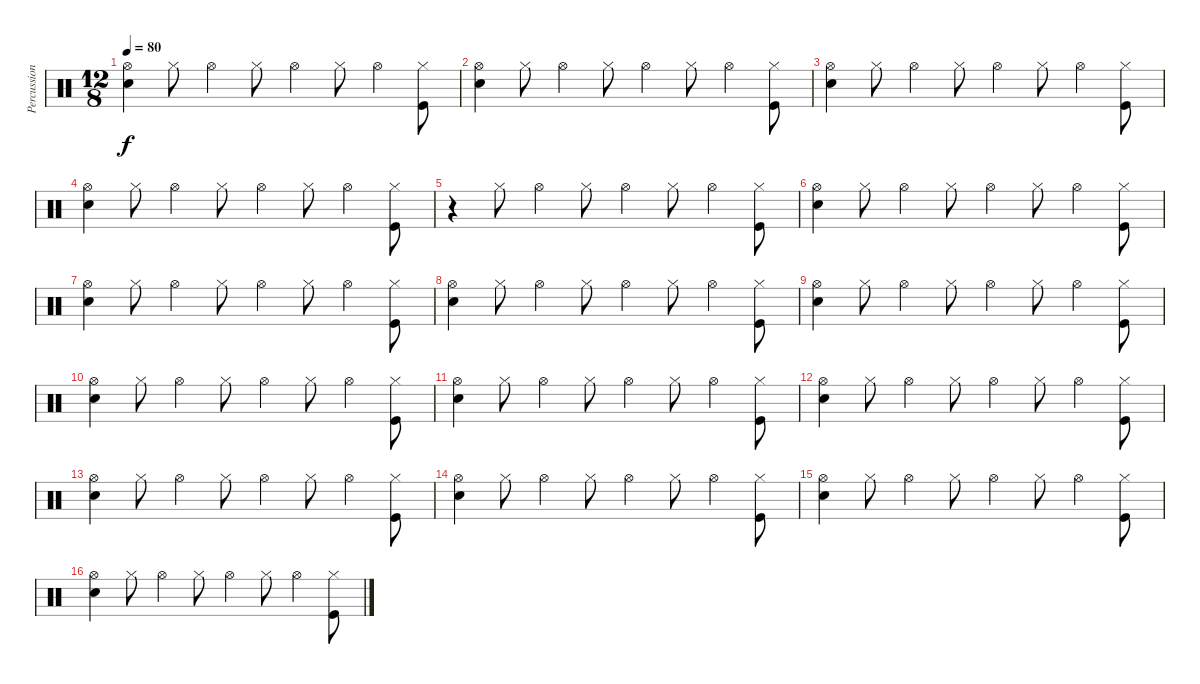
\track ("Percussion" "Percussion") {instrument percussion}
\staff {score}
\articulation defaults
\ts (12 8)
\tempo 80
\clef neutral
\ks c
("Hi-Hat (open)" "Snare (hit) 2").4{dy f} "Hi-Hat (closed)".8 "Hi-Hat (open)".4 "Hi-Hat (closed)".8 "Hi-Hat (open)".4 "Hi-Hat (closed)".8 "Hi-Hat (open)".4 ("Hi-Hat (closed)" "Kick (hit)").8 |
("Hi-Hat (open)" "Snare (hit) 2").4 "Hi-Hat (closed)".8 "Hi-Hat (open)".4 "Hi-Hat (closed)".8 "Hi-Hat (open)".4 "Hi-Hat (closed)".8 "Hi-Hat (open)".4 ("Hi-Hat (closed)" "Kick (hit)").8 |
("Hi-Hat (open)" "Snare (hit) 2").4 "Hi-Hat (closed)".8 "Hi-Hat (open)".4 "Hi-Hat (closed)".8 "Hi-Hat (open)".4 "Hi-Hat (closed)".8 "Hi-Hat (open)".4 ("Hi-Hat (closed)" "Kick (hit)").8 |
("Hi-Hat (open)" "Snare (hit) 2").4 "Hi-Hat (closed)".8 "Hi-Hat (open)".4 "Hi-Hat (closed)".8 "Hi-Hat (open)".4 "Hi-Hat (closed)".8 "Hi-Hat (open)".4 ("Hi-Hat (closed)" "Kick (hit)").8 |
r.4 "Hi-Hat (closed)".8 "Hi-Hat (open)".4 "Hi-Hat (closed)".8 "Hi-Hat (open)".4 "Hi-Hat (closed)".8 "Hi-Hat (open)".4 ("Hi-Hat (closed)" "Kick (hit)").8 |
("Hi-Hat (open)" "Snare (hit) 2").4 "Hi-Hat (closed)".8 "Hi-Hat (open)".4 "Hi-Hat (closed)".8 "Hi-Hat (open)".4 "Hi-Hat (closed)".8 "Hi-Hat (open)".4 ("Hi-Hat (closed)" "Kick (hit)").8 |
("Hi-Hat (open)" "Snare (hit) 2").4 "Hi-Hat (closed)".8 "Hi-Hat (open)".4 "Hi-Hat (closed)".8 "Hi-Hat (open)".4 "Hi-Hat (closed)".8 "Hi-Hat (open)".4 ("Hi-Hat (closed)" "Kick (hit)").8 |
("Hi-Hat (open)" "Snare (hit) 2").4 "Hi-Hat (closed)".8 "Hi-Hat (open)".4 "Hi-Hat (closed)".8 "Hi-Hat (open)".4 "Hi-Hat (closed)".8 "Hi-Hat (open)".4 ("Hi-Hat (closed)" "Kick (hit)").8 |
("Hi-Hat (open)" "Snare (hit) 2").4 "Hi-Hat (closed)".8 "Hi-Hat (open)".4 "Hi-Hat (closed)".8 "Hi-Hat (open)".4 "Hi-Hat (closed)".8 "Hi-Hat (open)".4 ("Hi-Hat (closed)" "Kick (hit)").8 |
("Hi-Hat (open)" "Snare (hit) 2").4 "Hi-Hat (closed)".8 "Hi-Hat (open)".4 "Hi-Hat (closed)".8 "Hi-Hat (open)".4 "Hi-Hat (closed)".8 "Hi-Hat (open)".4 ("Hi-Hat (closed)" "Kick (hit)").8 |
("Hi-Hat (open)" "Snare (hit) 2").4 "Hi-Hat (closed)".8 "Hi-Hat (open)".4 "Hi-Hat (closed)".8 "Hi-Hat (open)".4 "Hi-Hat (closed)".8 "Hi-Hat (open)".4 ("Hi-Hat (closed)" "Kick (hit)").8 |
("Hi-Hat (open)" "Snare (hit) 2").4 "Hi-Hat (closed)".8 "Hi-Hat (open)".4 "Hi-Hat (closed)".8 "Hi-Hat (open)".4 "Hi-Hat (closed)".8 "Hi-Hat (open)".4 ("Hi-Hat (closed)" "Kick (hit)").8 |
("Hi-Hat (open)" "Snare (hit) 2").4 "Hi-Hat (closed)".8 "Hi-Hat (open)".4 "Hi-Hat (closed)".8 "Hi-Hat (open)".4 "Hi-Hat (closed)".8 "Hi-Hat (open)".4 ("Hi-Hat (closed)" "Kick (hit)").8 |
("Hi-Hat (open)" "Snare (hit) 2").4 "Hi-Hat (closed)".8 "Hi-Hat (open)".4 "Hi-Hat (closed)".8 "Hi-Hat (open)".4 "Hi-Hat (closed)".8 "Hi-Hat (open)".4 ("Hi-Hat (closed)" "Kick (hit)").8 |
("Hi-Hat (open)" "Snare (hit) 2").4 "Hi-Hat (closed)".8 "Hi-Hat (open)".4 "Hi-Hat (closed)".8 "Hi-Hat (open)".4 "Hi-Hat (closed)".8 "Hi-Hat (open)".4 ("Hi-Hat (closed)" "Kick (hit)").8 |
("Hi-Hat (open)" "Snare (hit) 2").4 "Hi-Hat (closed)".8 "Hi-Hat (open)".4 "Hi-Hat (closed)".8 "Hi-Hat (open)".4 "Hi-Hat (closed)".8 "Hi-Hat (open)".4 ("Hi-Hat (closed)" "Kick (hit)").8
